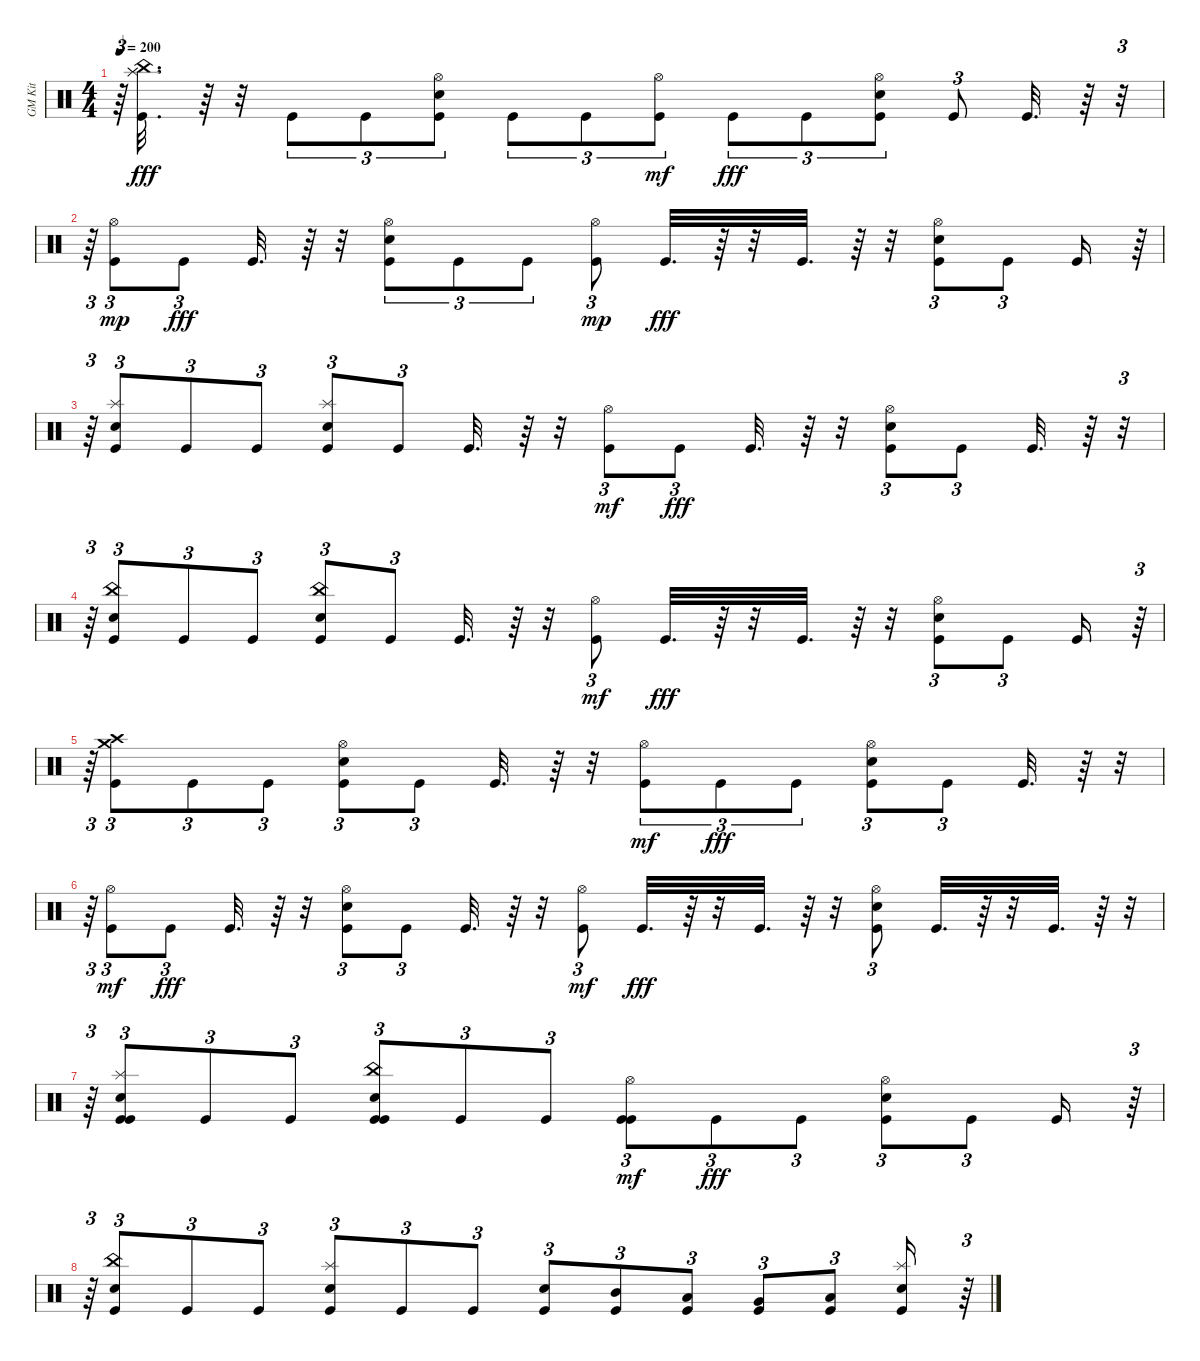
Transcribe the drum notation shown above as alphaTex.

\track ("GM Kit" "GM Kit") {instrument percussion}
\staff {score}
\articulation defaults
\ts (4 4)
\tempo 200
\clef neutral
\ks c
r.64{tu (3 2) dy mf} ("Kick (hit)" "China (hit)" "Splash (hit)" "Splash (hit)").32{d dy fff} r.64 r.32 "Kick (hit)".8{tu (3 2)} "Kick (hit)".8{tu (3 2)} ("Kick (hit)" "Snare (hit) 2" "Hi-Hat (open)").8{tu (3 2)} "Kick (hit)".8{tu (3 2)} "Kick (hit)".8{tu (3 2)} ("Kick (hit)" "Hi-Hat (open)").8{tu (3 2) dy mf} "Kick (hit)".8{tu (3 2) dy fff} "Kick (hit)".8{tu (3 2)} ("Kick (hit)" "Snare (hit) 2" "Hi-Hat (open)").8{tu (3 2)} "Kick (hit)".8{tu (3 2)} "Kick (hit)".32{d} r.64 r.32{tu (3 2)} |
r.64{tu (3 2)} ("Kick (hit)" "Hi-Hat (open)").8{tu (3 2) dy mp} "Kick (hit)".8{tu (3 2) dy fff} "Kick (hit)".32{d} r.64 r.32 ("Kick (hit)" "Snare (hit) 2" "Hi-Hat (open)").8{tu (3 2)} "Kick (hit)".8{tu (3 2)} "Kick (hit)".8{tu (3 2)} ("Kick (hit)" "Hi-Hat (open)").8{tu (3 2) dy mp} "Kick (hit)".32{d dy fff} r.64 r.32 "Kick (hit)".32{d} r.64 r.32 ("Kick (hit)" "Snare (hit) 2" "Hi-Hat (open)").8{tu (3 2)} "Kick (hit)".8{tu (3 2)} "Kick (hit)".16 r.64{tu (3 2)} |
r.64{tu (3 2)} ("Kick (hit)" "Snare (hit) 2" "Splash (hit)").8{tu (3 2)} "Kick (hit)".8{tu (3 2)} "Kick (hit)".8{tu (3 2)} ("Kick (hit)" "Snare (hit) 2" "Splash (hit)").8{tu (3 2)} "Kick (hit)".8{tu (3 2)} "Kick (hit)".32{d} r.64 r.32 ("Kick (hit)" "Hi-Hat (open)").8{tu (3 2) dy mf} "Kick (hit)".8{tu (3 2) dy fff} "Kick (hit)".32{d} r.64 r.32 ("Kick (hit)" "Snare (hit) 2" "Hi-Hat (open)").8{tu (3 2)} "Kick (hit)".8{tu (3 2)} "Kick (hit)".32{d} r.64 r.32{tu (3 2)} |
r.64{tu (3 2)} ("Kick (hit)" "Snare (hit) 2" "China (hit)").8{tu (3 2)} "Kick (hit)".8{tu (3 2)} "Kick (hit)".8{tu (3 2)} ("Kick (hit)" "Snare (hit) 2" "China (hit)").8{tu (3 2)} "Kick (hit)".8{tu (3 2)} "Kick (hit)".32{d} r.64 r.32 ("Kick (hit)" "Hi-Hat (open)").8{tu (3 2) dy mf} "Kick (hit)".32{d dy fff} r.64 r.32 "Kick (hit)".32{d} r.64 r.32 ("Kick (hit)" "Snare (hit) 2" "Hi-Hat (open)").8{tu (3 2)} "Kick (hit)".8{tu (3 2)} "Kick (hit)".16 r.64{tu (3 2)} |
r.64{tu (3 2)} ("Kick (hit)" "Crash high (hit)" "Crash medium (hit)").8{tu (3 2)} "Kick (hit)".8{tu (3 2)} "Kick (hit)".8{tu (3 2)} ("Kick (hit)" "Snare (hit) 2" "Hi-Hat (open)").8{tu (3 2)} "Kick (hit)".8{tu (3 2)} "Kick (hit)".32{d} r.64 r.32 ("Kick (hit)" "Hi-Hat (open)").8{tu (3 2) dy mf} "Kick (hit)".8{tu (3 2) dy fff} "Kick (hit)".8{tu (3 2)} ("Kick (hit)" "Snare (hit) 2" "Hi-Hat (open)").8{tu (3 2)} "Kick (hit)".8{tu (3 2)} "Kick (hit)".32{d} r.64 r.32{tu (3 2)} |
r.64{tu (3 2)} ("Kick (hit)" "Hi-Hat (open)").8{tu (3 2) dy mf} "Kick (hit)".8{tu (3 2) dy fff} "Kick (hit)".32{d} r.64 r.32 ("Kick (hit)" "Snare (hit) 2" "Hi-Hat (open)").8{tu (3 2)} "Kick (hit)".8{tu (3 2)} "Kick (hit)".32{d} r.64 r.32 ("Kick (hit)" "Hi-Hat (open)").8{tu (3 2) dy mf} "Kick (hit)".32{d dy fff} r.64 r.32 "Kick (hit)".32{d} r.64 r.32 ("Kick (hit)" "Snare (hit) 2" "Hi-Hat (open)").8{tu (3 2)} "Kick (hit)".32{d} r.64 r.32 "Kick (hit)".32{d} r.64 r.32{tu (3 2)} |
r.64{tu (3 2)} ("Kick (hit)" "Kick (hit)" "Snare (hit) 2" "Splash (hit)").8{tu (3 2)} "Kick (hit)".8{tu (3 2)} "Kick (hit)".8{tu (3 2)} ("Kick (hit)" "Kick (hit)" "Snare (hit) 2" "China (hit)").8{tu (3 2)} "Kick (hit)".8{tu (3 2)} "Kick (hit)".8{tu (3 2)} ("Kick (hit)" "Kick (hit)" "Hi-Hat (open)").8{tu (3 2) dy mf} "Kick (hit)".8{tu (3 2) dy fff} "Kick (hit)".8{tu (3 2)} ("Kick (hit)" "Snare (hit) 2" "Hi-Hat (open)").8{tu (3 2)} "Kick (hit)".8{tu (3 2)} "Kick (hit)".16 r.64{tu (3 2)} |
r.64{tu (3 2)} ("Kick (hit)" "Snare (hit) 2" "China (hit)").8{tu (3 2)} "Kick (hit)".8{tu (3 2)} "Kick (hit)".8{tu (3 2)} ("Kick (hit)" "Snare (hit) 2" "Splash (hit)").8{tu (3 2)} "Kick (hit)".8{tu (3 2)} "Kick (hit)".8{tu (3 2)} ("Kick (hit)" "Snare (hit) 2").8{tu (3 2)} ("Kick (hit)" "Mid Tom (hit)").8{tu (3 2)} ("Kick (hit)" "Low Tom (hit)").8{tu (3 2)} ("Kick (hit)" "Very Low Tom (hit)").8{tu (3 2)} ("Kick (hit)" "Low Floor Tom (hit)").8{tu (3 2)} ("Kick (hit)" "Snare (hit) 2" "Splash (hit)").16 r.64{tu (3 2)}
